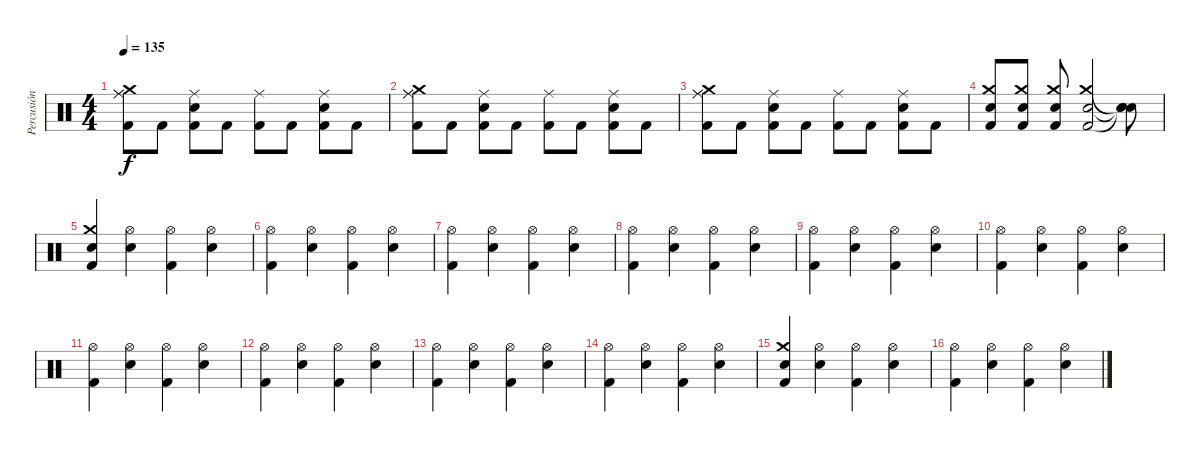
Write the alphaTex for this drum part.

\track ("Percusión" "Percusión") {instrument percussion}
\staff {score}
\articulation defaults
\ts (4 4)
\tempo 135
\clef neutral
\ks c
("Ride (middle)" "Kick (hit) 2" "Ride (middle)" "Crash medium (hit)").8{dy f} "Kick (hit) 2".8 ("Ride (middle)" "Electric Snare (hit)" "Kick (hit) 2").8 "Kick (hit) 2".8 ("Ride (middle)" "Kick (hit) 2").8 "Kick (hit) 2".8 ("Ride (middle)" "Electric Snare (hit)" "Kick (hit) 2").8 "Kick (hit) 2".8 |
("Ride (middle)" "Kick (hit) 2" "Ride (middle)" "Crash medium (hit)").8 "Kick (hit) 2".8 ("Ride (middle)" "Electric Snare (hit)" "Kick (hit) 2").8 "Kick (hit) 2".8 ("Ride (middle)" "Kick (hit) 2").8 "Kick (hit) 2".8 ("Ride (middle)" "Electric Snare (hit)" "Kick (hit) 2").8 "Kick (hit) 2".8 |
("Ride (middle)" "Kick (hit) 2" "Ride (middle)" "Crash medium (hit)").8 "Kick (hit) 2".8 ("Ride (middle)" "Electric Snare (hit)" "Kick (hit) 2").8 "Kick (hit) 2".8 ("Ride (middle)" "Kick (hit) 2").8 "Kick (hit) 2".8 ("Ride (middle)" "Electric Snare (hit)" "Kick (hit) 2").8 "Kick (hit) 2".8 |
("Crash medium (hit)" "Electric Snare (hit)" "Kick (hit) 2").8 ("Crash medium (hit)" "Electric Snare (hit)" "Kick (hit) 2").8 ("Crash medium (hit)" "Electric Snare (hit)" "Kick (hit) 2").8 ("Crash medium (hit)" "Electric Snare (hit)" "Kick (hit) 2").2 ("Snare (hit)"{t} "Snare (hit)"{t} "Snare (hit)"{t}).8 |
("Crash medium (hit)" "Electric Snare (hit)" "Kick (hit) 2").4 ("Hi-Hat (open)" "Electric Snare (hit)").4 ("Hi-Hat (open)" "Kick (hit) 2").4 ("Hi-Hat (open)" "Electric Snare (hit)").4 |
("Hi-Hat (open)" "Kick (hit) 2").4 ("Hi-Hat (open)" "Electric Snare (hit)").4 ("Hi-Hat (open)" "Kick (hit) 2").4 ("Hi-Hat (open)" "Electric Snare (hit)").4 |
("Hi-Hat (open)" "Kick (hit) 2").4 ("Hi-Hat (open)" "Electric Snare (hit)").4 ("Hi-Hat (open)" "Kick (hit) 2").4 ("Hi-Hat (open)" "Electric Snare (hit)").4 |
("Hi-Hat (open)" "Kick (hit) 2").4 ("Hi-Hat (open)" "Electric Snare (hit)").4 ("Hi-Hat (open)" "Kick (hit) 2").4 ("Hi-Hat (open)" "Electric Snare (hit)").4 |
("Hi-Hat (open)" "Kick (hit) 2").4 ("Hi-Hat (open)" "Electric Snare (hit)").4 ("Hi-Hat (open)" "Kick (hit) 2").4 ("Hi-Hat (open)" "Electric Snare (hit)").4 |
("Hi-Hat (open)" "Kick (hit) 2").4 ("Hi-Hat (open)" "Electric Snare (hit)").4 ("Hi-Hat (open)" "Kick (hit) 2").4 ("Hi-Hat (open)" "Electric Snare (hit)").4 |
("Hi-Hat (open)" "Kick (hit) 2").4 ("Hi-Hat (open)" "Electric Snare (hit)").4 ("Hi-Hat (open)" "Kick (hit) 2").4 ("Hi-Hat (open)" "Electric Snare (hit)").4 |
("Hi-Hat (open)" "Kick (hit) 2").4 ("Hi-Hat (open)" "Electric Snare (hit)").4 ("Hi-Hat (open)" "Kick (hit) 2").4 ("Hi-Hat (open)" "Electric Snare (hit)").4 |
("Hi-Hat (open)" "Kick (hit) 2").4 ("Hi-Hat (open)" "Electric Snare (hit)").4 ("Hi-Hat (open)" "Kick (hit) 2").4 ("Hi-Hat (open)" "Electric Snare (hit)").4 |
("Hi-Hat (open)" "Kick (hit) 2").4 ("Hi-Hat (open)" "Electric Snare (hit)").4 ("Hi-Hat (open)" "Kick (hit) 2").4 ("Hi-Hat (open)" "Electric Snare (hit)").4 |
("Crash medium (hit)" "Electric Snare (hit)" "Kick (hit) 2").4 ("Hi-Hat (open)" "Electric Snare (hit)").4 ("Hi-Hat (open)" "Kick (hit) 2").4 ("Hi-Hat (open)" "Electric Snare (hit)").4 |
("Hi-Hat (open)" "Kick (hit) 2").4 ("Hi-Hat (open)" "Electric Snare (hit)").4 ("Hi-Hat (open)" "Kick (hit) 2").4 ("Hi-Hat (open)" "Electric Snare (hit)").4
